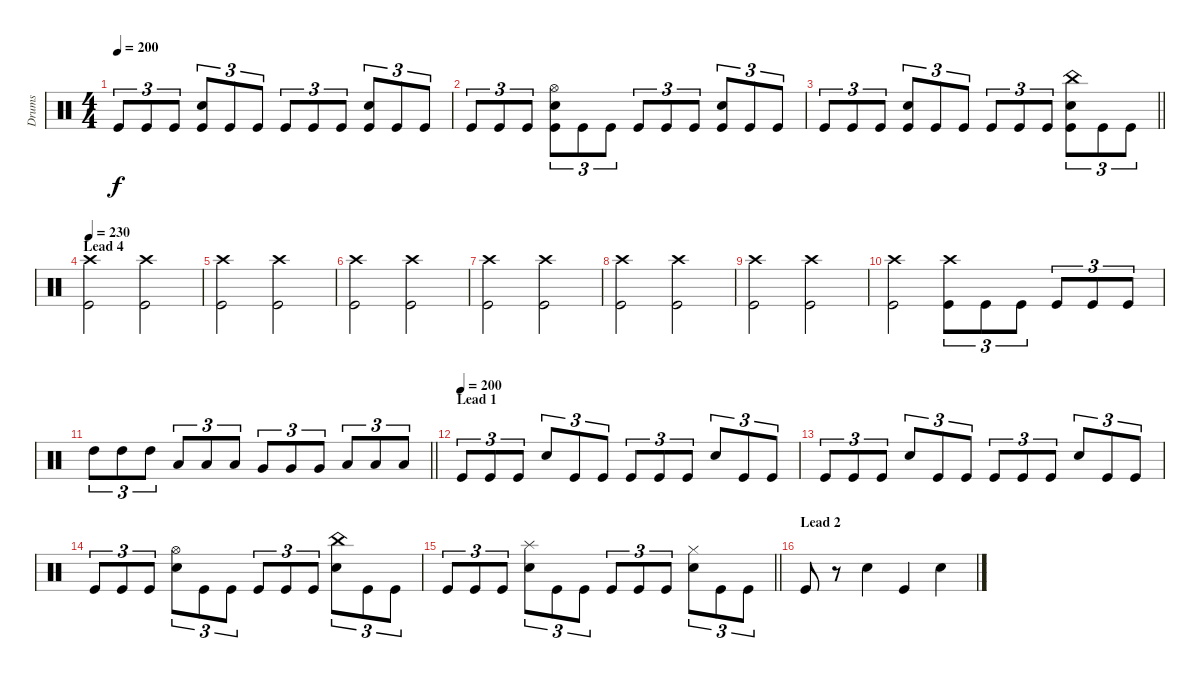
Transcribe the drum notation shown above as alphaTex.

\track ("Drums" "Drums") {instrument percussion}
\staff {score}
\articulation defaults
\ts (4 4)
\tempo 200
\clef neutral
\ks c "Kick (hit)".8{tu (3 2) dy f} "Kick (hit)".8{tu (3 2)} "Kick (hit)".8{tu (3 2)}
("Snare (hit) 2" "Kick (hit)").8{tu (3 2)} "Kick (hit)".8{tu (3 2)} "Kick (hit)".8{tu (3 2)} "Kick (hit)".8{tu (3 2)} "Kick (hit)".8{tu (3 2)} "Kick (hit)".8{tu (3 2)} ("Snare (hit) 2" "Kick (hit)").8{tu (3 2)} "Kick (hit)".8{tu (3 2)} "Kick (hit)".8{tu (3 2)} |
"Kick (hit)".8{tu (3 2)} "Kick (hit)".8{tu (3 2)} "Kick (hit)".8{tu (3 2)} ("Hi-Hat (open)" "Snare (hit) 2" "Kick (hit)").8{tu (3 2)} "Kick (hit)".8{tu (3 2)} "Kick (hit)".8{tu (3 2)} "Kick (hit)".8{tu (3 2)} "Kick (hit)".8{tu (3 2)} "Kick (hit)".8{tu (3 2)} ("Snare (hit) 2" "Kick (hit)").8{tu (3 2)} "Kick (hit)".8{tu (3 2)} "Kick (hit)".8{tu (3 2)} |
\barLineRight lightlight "Kick (hit)".8{tu (3 2)} "Kick (hit)".8{tu (3 2)} "Kick (hit)".8{tu (3 2)}
("Snare (hit) 2" "Kick (hit)").8{tu (3 2)} "Kick (hit)".8{tu (3 2)} "Kick (hit)".8{tu (3 2)} "Kick (hit)".8{tu (3 2)} "Kick (hit)".8{tu (3 2)} "Kick (hit)".8{tu (3 2)} ("China (hit)" "Snare (hit) 2" "Kick (hit)").8{tu (3 2)} "Kick (hit)".8{tu (3 2)} "Kick (hit)".8{tu (3 2)} |
\section ("" "Lead 4")
\tempo 230
("Crash high (hit)" "Kick (hit)").2 ("Crash high (hit)" "Kick (hit)").2 |
("Crash high (hit)" "Kick (hit)").2 ("Crash high (hit)" "Kick (hit)").2 |
("Crash high (hit)" "Kick (hit)").2 ("Crash high (hit)" "Kick (hit)").2 |
("Crash high (hit)" "Kick (hit)").2 ("Crash high (hit)" "Kick (hit)").2 |
("Crash high (hit)" "Kick (hit)").2 ("Crash high (hit)" "Kick (hit)").2 |
("Crash high (hit)" "Kick (hit)").2 ("Crash high (hit)" "Kick (hit)").2 |
("Crash high (hit)" "Kick (hit)").2 ("Crash high (hit)" "Kick (hit)").8{tu (3 2)} "Kick (hit)".8{tu (3 2)} "Kick (hit)".8{tu (3 2)} "Kick (hit)".8{tu (3 2)} "Kick (hit)".8{tu (3 2)} "Kick (hit)".8{tu (3 2)} |
\barLineRight lightlight "High Tom (hit)".8{tu (3 2)} "High Tom (hit)".8{tu (3 2)} "High Tom (hit)".8{tu (3 2)} "Low Tom (hit)".8{tu (3 2)} "Low Tom (hit)".8{tu (3 2)} "Low Tom (hit)".8{tu (3 2)} "Very Low Tom (hit)".8{tu (3 2)} "Very Low Tom (hit)".8{tu (3 2)} "Very Low Tom (hit)".8{tu (3 2)} "Low Floor Tom (hit)".8{tu (3 2)} "Low Floor Tom (hit)".8{tu (3 2)} "Low Floor Tom (hit)".8{tu (3 2)}
|
\section ("" "Lead 1")
\tempo (200)
"Kick (hit)".8{tu (3 2)} "Kick (hit)".8{tu (3 2)} "Kick (hit)".8{tu (3 2)} "Snare (hit) 2".8{tu (3 2)} "Kick (hit)".8{tu (3 2)} "Kick (hit)".8{tu (3 2)} "Kick (hit)".8{tu (3 2)} "Kick (hit)".8{tu (3 2)} "Kick (hit)".8{tu (3 2)} "Snare (hit) 2".8{tu (3 2)} "Kick (hit)".8{tu (3 2)} "Kick (hit)".8{tu (3 2)} |
"Kick (hit)".8{tu (3 2)} "Kick (hit)".8{tu (3 2)} "Kick (hit)".8{tu (3 2)} "Snare (hit) 2".8{tu (3 2)} "Kick (hit)".8{tu (3 2)} "Kick (hit)".8{tu (3 2)} "Kick (hit)".8{tu (3 2)} "Kick (hit)".8{tu (3 2)} "Kick (hit)".8{tu (3 2)} "Snare (hit) 2".8{tu (3 2)} "Kick (hit)".8{tu (3 2)} "Kick (hit)".8{tu (3 2)} |
"Kick (hit)".8{tu (3 2)} "Kick (hit)".8{tu (3 2)} "Kick (hit)".8{tu (3 2)} ("Hi-Hat (open)" "Snare (hit) 2").8{tu (3 2)} "Kick (hit)".8{tu (3 2)} "Kick (hit)".8{tu (3 2)} "Kick (hit)".8{tu (3 2)} "Kick (hit)".8{tu (3 2)} "Kick (hit)".8{tu (3 2)} ("China (hit)" "Snare (hit) 2").8{tu (3 2)} "Kick (hit)".8{tu (3 2)} "Kick (hit)".8{tu (3 2)} |
\barLineRight lightlight "Kick (hit)".8{tu (3 2)} "Kick (hit)".8{tu (3 2)} "Kick (hit)".8{tu (3 2)}
("Splash (hit)" "Snare (hit) 2").8{tu (3 2)} "Kick (hit)".8{tu (3 2)} "Kick (hit)".8{tu (3 2)} "Kick (hit)".8{tu (3 2)} "Kick (hit)".8{tu (3 2)} "Kick (hit)".8{tu (3 2)} ("Hi-Hat (closed)" "Snare (hit) 2").8{tu (3 2)} "Kick (hit)".8{tu (3 2)} "Kick (hit)".8{tu (3 2)} |
\section ("" "Lead 2")
"Kick (hit)".8 r.8 "Snare (hit) 2".4 "Kick (hit)".4 "Snare (hit) 2".4
